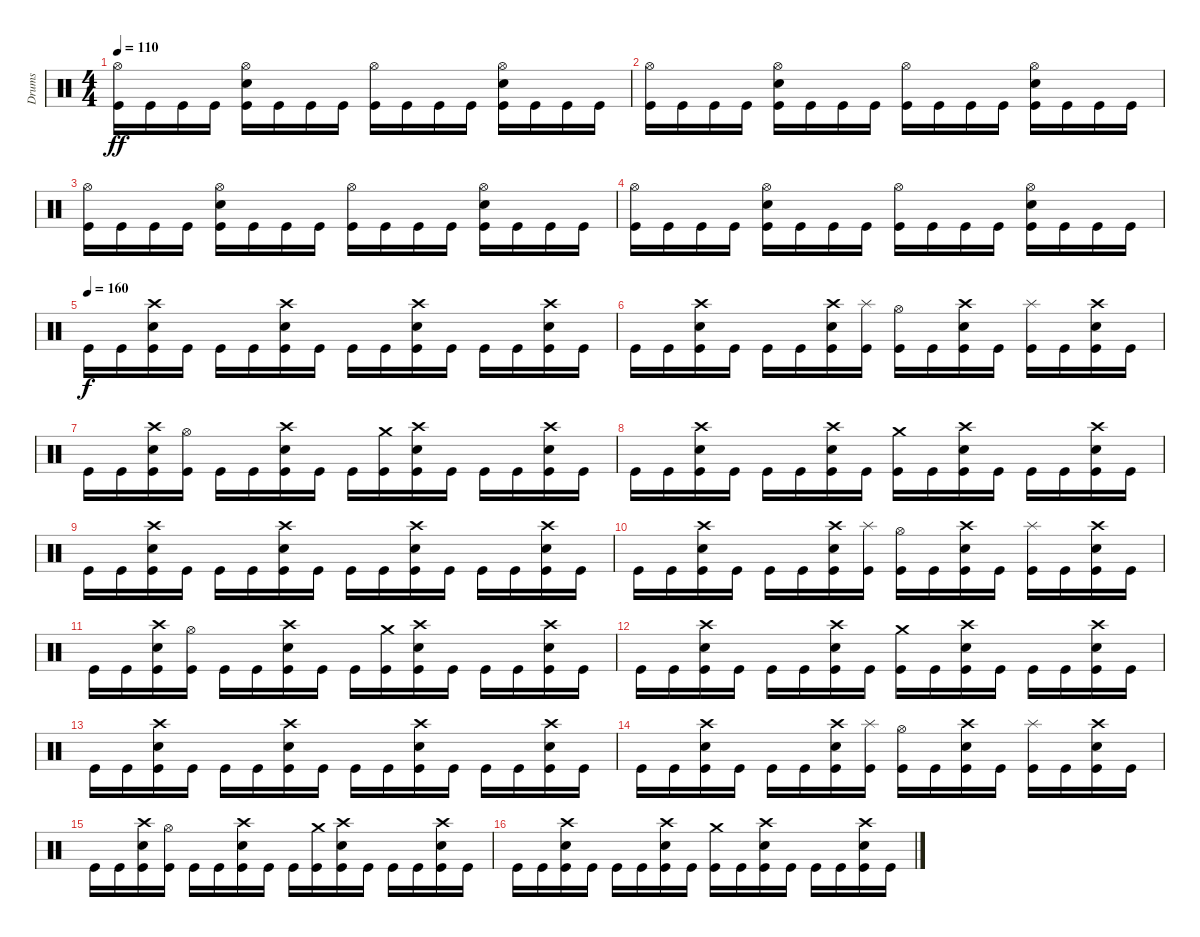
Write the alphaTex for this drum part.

\track ("Drums" "Drums") {instrument percussion}
\staff {score}
\articulation defaults
\ts (4 4)
\tempo 110
\clef neutral
\ks c
("Hi-Hat (open)" "Kick (hit)").16{dy ff} "Kick (hit)".16 "Kick (hit)".16 "Kick (hit)".16 ("Hi-Hat (open)" "Snare (hit) 2" "Kick (hit)").16 "Kick (hit)".16 "Kick (hit)".16 "Kick (hit)".16 ("Hi-Hat (open)" "Kick (hit)").16 "Kick (hit)".16 "Kick (hit)".16 "Kick (hit)".16 ("Hi-Hat (open)" "Snare (hit) 2" "Kick (hit)").16 "Kick (hit)".16 "Kick (hit)".16 "Kick (hit)".16 |
("Hi-Hat (open)" "Kick (hit)").16 "Kick (hit)".16 "Kick (hit)".16 "Kick (hit)".16 ("Hi-Hat (open)" "Snare (hit) 2" "Kick (hit)").16 "Kick (hit)".16 "Kick (hit)".16 "Kick (hit)".16 ("Hi-Hat (open)" "Kick (hit)").16 "Kick (hit)".16 "Kick (hit)".16 "Kick (hit)".16 ("Hi-Hat (open)" "Snare (hit) 2" "Kick (hit)").16 "Kick (hit)".16 "Kick (hit)".16 "Kick (hit)".16 |
("Hi-Hat (open)" "Kick (hit)").16 "Kick (hit)".16 "Kick (hit)".16 "Kick (hit)".16 ("Hi-Hat (open)" "Snare (hit) 2" "Kick (hit)").16 "Kick (hit)".16 "Kick (hit)".16 "Kick (hit)".16 ("Hi-Hat (open)" "Kick (hit)").16 "Kick (hit)".16 "Kick (hit)".16 "Kick (hit)".16 ("Hi-Hat (open)" "Snare (hit) 2" "Kick (hit)").16 "Kick (hit)".16 "Kick (hit)".16 "Kick (hit)".16 |
("Hi-Hat (open)" "Kick (hit)").16 "Kick (hit)".16 "Kick (hit)".16 "Kick (hit)".16 ("Hi-Hat (open)" "Snare (hit) 2" "Kick (hit)").16 "Kick (hit)".16 "Kick (hit)".16 "Kick (hit)".16 ("Hi-Hat (open)" "Kick (hit)").16 "Kick (hit)".16 "Kick (hit)".16 "Kick (hit)".16 ("Hi-Hat (open)" "Snare (hit) 2" "Kick (hit)").16 "Kick (hit)".16 "Kick (hit)".16 "Kick (hit)".16 |
\tempo (160)
"Kick (hit)".16{dy f} "Kick (hit)".16 ("Crash high (hit)" "Snare (hit) 2" "Kick (hit)").16 "Kick (hit)".16 "Kick (hit)".16 "Kick (hit)".16 ("Crash high (hit)" "Snare (hit) 2" "Kick (hit)").16 "Kick (hit)".16 "Kick (hit)".16 "Kick (hit)".16 ("Crash high (hit)" "Snare (hit) 2" "Kick (hit)").16 "Kick (hit)".16 "Kick (hit)".16 "Kick (hit)".16 ("Crash high (hit)" "Snare (hit) 2" "Kick (hit)").16 "Kick (hit)".16 |
"Kick (hit)".16 "Kick (hit)".16 ("Crash high (hit)" "Snare (hit) 2" "Kick (hit)").16 "Kick (hit)".16 "Kick (hit)".16 "Kick (hit)".16 ("Crash high (hit)" "Snare (hit) 2" "Kick (hit)").16 ("Kick (hit)" "Splash (hit)").16 ("Kick (hit)" "Hi-Hat (open)").16 "Kick (hit)".16 ("Crash high (hit)" "Snare (hit) 2" "Kick (hit)").16 "Kick (hit)".16 ("Kick (hit)" "Splash (hit)").16 "Kick (hit)".16 ("Crash high (hit)" "Snare (hit) 2" "Kick (hit)").16 "Kick (hit)".16 |
"Kick (hit)".16 "Kick (hit)".16 ("Crash high (hit)" "Snare (hit) 2" "Kick (hit)").16 ("Kick (hit)" "Hi-Hat (open)").16 "Kick (hit)".16 "Kick (hit)".16 ("Crash high (hit)" "Snare (hit) 2" "Kick (hit)").16 "Kick (hit)".16 "Kick (hit)".16 ("Kick (hit)" "Crash medium (hit)").16 ("Crash high (hit)" "Snare (hit) 2" "Kick (hit)").16 "Kick (hit)".16 "Kick (hit)".16 "Kick (hit)".16 ("Crash high (hit)" "Snare (hit) 2" "Kick (hit)").16 "Kick (hit)".16 |
"Kick (hit)".16 "Kick (hit)".16 ("Crash high (hit)" "Snare (hit) 2" "Kick (hit)").16 "Kick (hit)".16 "Kick (hit)".16 "Kick (hit)".16 ("Crash high (hit)" "Snare (hit) 2" "Kick (hit)").16 "Kick (hit)".16 ("Kick (hit)" "Crash medium (hit)").16 "Kick (hit)".16 ("Crash high (hit)" "Snare (hit) 2" "Kick (hit)").16 "Kick (hit)".16 "Kick (hit)".16 "Kick (hit)".16 ("Crash high (hit)" "Snare (hit) 2" "Kick (hit)").16 "Kick (hit)".16 |
"Kick (hit)".16 "Kick (hit)".16 ("Crash high (hit)" "Snare (hit) 2" "Kick (hit)").16 "Kick (hit)".16 "Kick (hit)".16 "Kick (hit)".16 ("Crash high (hit)" "Snare (hit) 2" "Kick (hit)").16 "Kick (hit)".16 "Kick (hit)".16 "Kick (hit)".16 ("Crash high (hit)" "Snare (hit) 2" "Kick (hit)").16 "Kick (hit)".16 "Kick (hit)".16 "Kick (hit)".16 ("Crash high (hit)" "Snare (hit) 2" "Kick (hit)").16 "Kick (hit)".16 |
"Kick (hit)".16 "Kick (hit)".16 ("Crash high (hit)" "Snare (hit) 2" "Kick (hit)").16 "Kick (hit)".16 "Kick (hit)".16 "Kick (hit)".16 ("Crash high (hit)" "Snare (hit) 2" "Kick (hit)").16 ("Kick (hit)" "Splash (hit)").16 ("Kick (hit)" "Hi-Hat (open)").16 "Kick (hit)".16 ("Crash high (hit)" "Snare (hit) 2" "Kick (hit)").16 "Kick (hit)".16 ("Kick (hit)" "Splash (hit)").16 "Kick (hit)".16 ("Crash high (hit)" "Snare (hit) 2" "Kick (hit)").16 "Kick (hit)".16 |
"Kick (hit)".16 "Kick (hit)".16 ("Crash high (hit)" "Snare (hit) 2" "Kick (hit)").16 ("Kick (hit)" "Hi-Hat (open)").16 "Kick (hit)".16 "Kick (hit)".16 ("Crash high (hit)" "Snare (hit) 2" "Kick (hit)").16 "Kick (hit)".16 "Kick (hit)".16 ("Kick (hit)" "Crash medium (hit)").16 ("Crash high (hit)" "Snare (hit) 2" "Kick (hit)").16 "Kick (hit)".16 "Kick (hit)".16 "Kick (hit)".16 ("Crash high (hit)" "Snare (hit) 2" "Kick (hit)").16 "Kick (hit)".16 |
"Kick (hit)".16 "Kick (hit)".16 ("Crash high (hit)" "Snare (hit) 2" "Kick (hit)").16 "Kick (hit)".16 "Kick (hit)".16 "Kick (hit)".16 ("Crash high (hit)" "Snare (hit) 2" "Kick (hit)").16 "Kick (hit)".16 ("Kick (hit)" "Crash medium (hit)").16 "Kick (hit)".16 ("Crash high (hit)" "Snare (hit) 2" "Kick (hit)").16 "Kick (hit)".16 "Kick (hit)".16 "Kick (hit)".16 ("Crash high (hit)" "Snare (hit) 2" "Kick (hit)").16 "Kick (hit)".16 |
"Kick (hit)".16 "Kick (hit)".16 ("Crash high (hit)" "Snare (hit) 2" "Kick (hit)").16 "Kick (hit)".16 "Kick (hit)".16 "Kick (hit)".16 ("Crash high (hit)" "Snare (hit) 2" "Kick (hit)").16 "Kick (hit)".16 "Kick (hit)".16 "Kick (hit)".16 ("Crash high (hit)" "Snare (hit) 2" "Kick (hit)").16 "Kick (hit)".16 "Kick (hit)".16 "Kick (hit)".16 ("Crash high (hit)" "Snare (hit) 2" "Kick (hit)").16 "Kick (hit)".16 |
"Kick (hit)".16 "Kick (hit)".16 ("Crash high (hit)" "Snare (hit) 2" "Kick (hit)").16 "Kick (hit)".16 "Kick (hit)".16 "Kick (hit)".16 ("Crash high (hit)" "Snare (hit) 2" "Kick (hit)").16 ("Kick (hit)" "Splash (hit)").16 ("Kick (hit)" "Hi-Hat (open)").16 "Kick (hit)".16 ("Crash high (hit)" "Snare (hit) 2" "Kick (hit)").16 "Kick (hit)".16 ("Kick (hit)" "Splash (hit)").16 "Kick (hit)".16 ("Crash high (hit)" "Snare (hit) 2" "Kick (hit)").16 "Kick (hit)".16 |
"Kick (hit)".16 "Kick (hit)".16 ("Crash high (hit)" "Snare (hit) 2" "Kick (hit)").16 ("Kick (hit)" "Hi-Hat (open)").16 "Kick (hit)".16 "Kick (hit)".16 ("Crash high (hit)" "Snare (hit) 2" "Kick (hit)").16 "Kick (hit)".16 "Kick (hit)".16 ("Kick (hit)" "Crash medium (hit)").16 ("Crash high (hit)" "Snare (hit) 2" "Kick (hit)").16 "Kick (hit)".16 "Kick (hit)".16 "Kick (hit)".16 ("Crash high (hit)" "Snare (hit) 2" "Kick (hit)").16 "Kick (hit)".16 |
"Kick (hit)".16 "Kick (hit)".16 ("Crash high (hit)" "Snare (hit) 2" "Kick (hit)").16 "Kick (hit)".16 "Kick (hit)".16 "Kick (hit)".16 ("Crash high (hit)" "Snare (hit) 2" "Kick (hit)").16 "Kick (hit)".16 ("Kick (hit)" "Crash medium (hit)").16 "Kick (hit)".16 ("Crash high (hit)" "Snare (hit) 2" "Kick (hit)").16 "Kick (hit)".16 "Kick (hit)".16 "Kick (hit)".16 ("Crash high (hit)" "Snare (hit) 2" "Kick (hit)").16 "Kick (hit)".16
